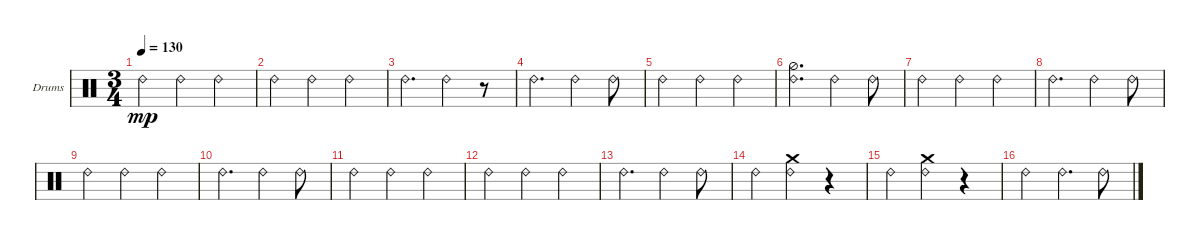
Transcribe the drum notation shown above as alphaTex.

\bracketExtendMode groupsimilarinstruments
\firstSystemTrackNameOrientation horizontal
\otherSystemsTrackNameOrientation horizontal
\track ("OH" "Drums") {instrument percussion}
\staff {score}
\articulation defaults
\ts (3 4)
\tempo 130
\clef neutral
\ks c "Ride (bell) 2".4{dy mp} "Ride (bell) 2".4 "Ride (bell) 2".4
|
"Ride (bell) 2".4 "Ride (bell) 2".4 "Ride (bell) 2".4 |
"Ride (bell) 2".4{d} "Ride (bell) 2".4 r.8 |
"Ride (bell) 2".4{d} "Ride (bell) 2".4 "Ride (bell) 2".8 |
"Ride (bell) 2".4 "Ride (bell) 2".4 "Ride (bell) 2".4 |
("Ride (bell) 2" "Hi-Hat (half)").4{d} "Ride (bell) 2".4 "Ride (bell) 2".8 |
"Ride (bell) 2".4 "Ride (bell) 2".4 "Ride (bell) 2".4 |
"Ride (bell) 2".4{d} "Ride (bell) 2".4 "Ride (bell) 2".8 |
"Ride (bell) 2".4 "Ride (bell) 2".4 "Ride (bell) 2".4 |
"Ride (bell) 2".4{d} "Ride (bell) 2".4 "Ride (bell) 2".8 |
"Ride (bell) 2".4 "Ride (bell) 2".4 "Ride (bell) 2".4 |
"Ride (bell) 2".4 "Ride (bell) 2".4 "Ride (bell) 2".4 |
"Ride (bell) 2".4{d} "Ride (bell) 2".4 "Ride (bell) 2".8 |
"Ride (bell) 2".4 ("Ride (bell) 2" "Crash medium (hit)").4 r.4 |
"Ride (bell) 2".4 ("Ride (bell) 2" "Crash medium (hit)").4 r.4 |
"Ride (bell) 2".4 "Ride (bell) 2".4{d} "Ride (bell) 2".8
